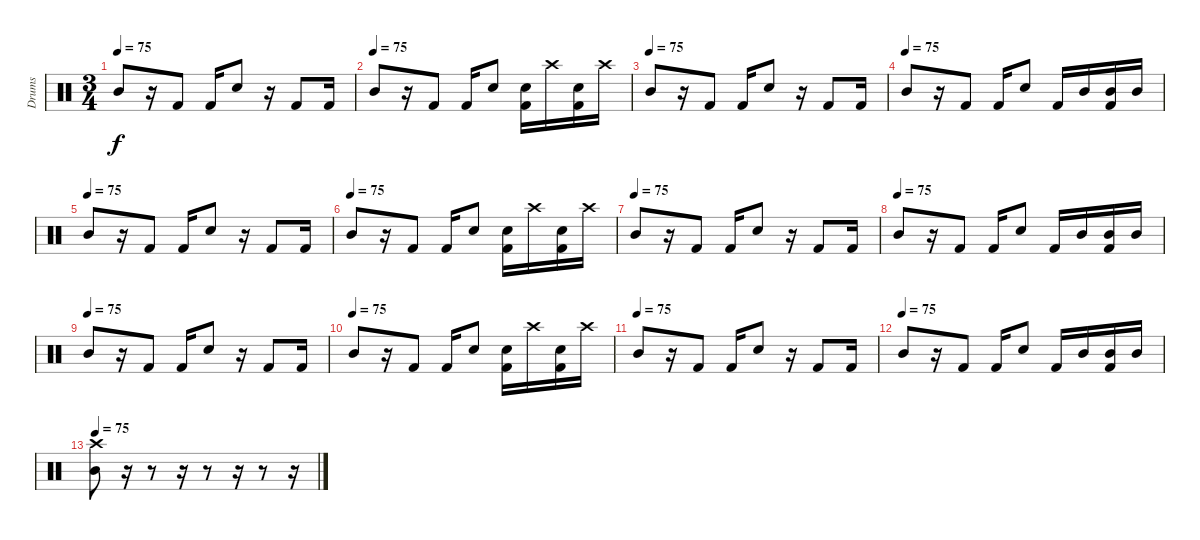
\track ("Drums" "Drums") {instrument percussion}
\staff {score}
\articulation defaults
\ts (3 4)
\tempo 75
\clef neutral
\ks c "Mid Tom (hit)".8{dy f}
r.16 "Kick (hit) 2".8 "Kick (hit) 2".16 "Snare (hit) 2".8 r.16 "Kick (hit) 2".8 "Kick (hit) 2".16 |
\tempo (75)
"Mid Tom (hit)".8 r.16 "Kick (hit) 2".8 "Kick (hit) 2".16 "Snare (hit) 2".8 ("Snare (hit) 2" "Kick (hit) 2").16 "Crash high (hit)".16 ("Snare (hit) 2" "Kick (hit) 2").16 "Crash high (hit)".16 |
\tempo (75)
"Mid Tom (hit)".8 r.16 "Kick (hit) 2".8 "Kick (hit) 2".16 "Snare (hit) 2".8 r.16 "Kick (hit) 2".8 "Kick (hit) 2".16 |
\tempo (75)
"Mid Tom (hit)".8 r.16 "Kick (hit) 2".8 "Kick (hit) 2".16 "Snare (hit) 2".8 "Kick (hit) 2".16 "Mid Tom (hit)".16 ("Mid Tom (hit)" "Kick (hit) 2").16 "Mid Tom (hit)".16 |
\tempo (75)
"Mid Tom (hit)".8 r.16 "Kick (hit) 2".8 "Kick (hit) 2".16 "Snare (hit) 2".8 r.16 "Kick (hit) 2".8 "Kick (hit) 2".16 |
\tempo (75)
"Mid Tom (hit)".8 r.16 "Kick (hit) 2".8 "Kick (hit) 2".16 "Snare (hit) 2".8 ("Snare (hit) 2" "Kick (hit) 2").16 "Crash high (hit)".16 ("Snare (hit) 2" "Kick (hit) 2").16 "Crash high (hit)".16 |
\tempo (75)
"Mid Tom (hit)".8 r.16 "Kick (hit) 2".8 "Kick (hit) 2".16 "Snare (hit) 2".8 r.16 "Kick (hit) 2".8 "Kick (hit) 2".16 |
\tempo (75)
"Mid Tom (hit)".8 r.16 "Kick (hit) 2".8 "Kick (hit) 2".16 "Snare (hit) 2".8 "Kick (hit) 2".16 "Mid Tom (hit)".16 ("Mid Tom (hit)" "Kick (hit) 2").16 "Mid Tom (hit)".16 |
\tempo (75)
"Mid Tom (hit)".8 r.16 "Kick (hit) 2".8 "Kick (hit) 2".16 "Snare (hit) 2".8 r.16 "Kick (hit) 2".8 "Kick (hit) 2".16 |
\tempo (75)
"Mid Tom (hit)".8 r.16 "Kick (hit) 2".8 "Kick (hit) 2".16 "Snare (hit) 2".8 ("Snare (hit) 2" "Kick (hit) 2").16 "Crash high (hit)".16 ("Snare (hit) 2" "Kick (hit) 2").16 "Crash high (hit)".16 |
\tempo (75)
"Mid Tom (hit)".8 r.16 "Kick (hit) 2".8 "Kick (hit) 2".16 "Snare (hit) 2".8 r.16 "Kick (hit) 2".8 "Kick (hit) 2".16 |
\tempo (75)
"Mid Tom (hit)".8 r.16 "Kick (hit) 2".8 "Kick (hit) 2".16 "Snare (hit) 2".8 "Kick (hit) 2".16 "Mid Tom (hit)".16 ("Mid Tom (hit)" "Kick (hit) 2").16 "Mid Tom (hit)".16 |
\tempo 75
("Crash high (hit)" "Mid Tom (hit)").8 r.16 r.8 r.16 r.8 r.16 r.8 r.16
